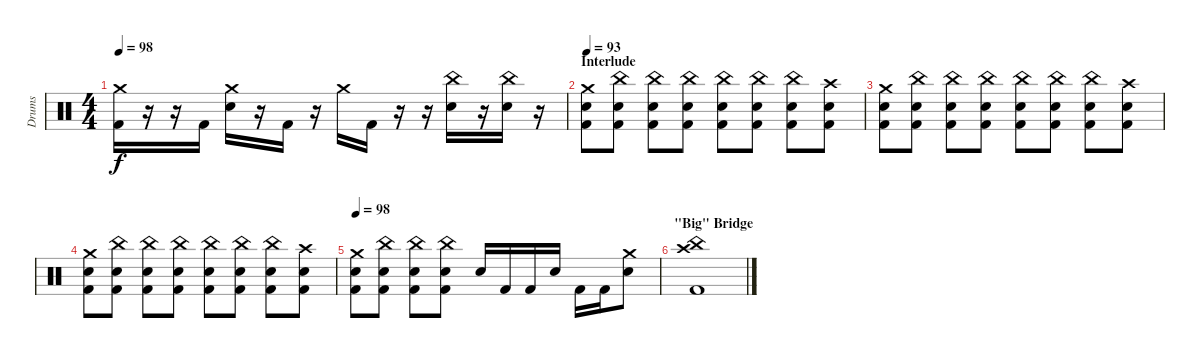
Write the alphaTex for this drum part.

\track ("Drums" "Drums") {instrument percussion}
\staff {score}
\articulation defaults
\ts (4 4)
\tempo 98
\clef neutral
\ks c
("Crash medium (hit)" "Kick (hit) 2").16{dy f} r.16 r.16 "Kick (hit) 2".16 ("Crash medium (hit)" "Electric Snare (hit)").16 r.16 "Kick (hit) 2".16 r.16 "Crash medium (hit)".16 "Kick (hit) 2".16 r.16 r.16 ("China (hit)" "Electric Snare (hit)").16 r.16 ("China (hit)" "Electric Snare (hit)").16 r.16 |
\section ("" "Interlude")
\tempo 93
("Crash medium (hit)" "Electric Snare (hit)" "Kick (hit) 2").8 ("China (hit)" "Electric Snare (hit)" "Kick (hit) 2").8 ("China (hit)" "Electric Snare (hit)" "Kick (hit) 2").8 ("China (hit)" "Electric Snare (hit)" "Kick (hit) 2").8 ("China (hit)" "Electric Snare (hit)" "Kick (hit) 2").8 ("China (hit)" "Electric Snare (hit)" "Kick (hit) 2").8 ("China (hit)" "Electric Snare (hit)" "Kick (hit) 2").8 ("Crash high (hit)" "Electric Snare (hit)" "Kick (hit) 2").8 |
("Crash medium (hit)" "Electric Snare (hit)" "Kick (hit) 2").8 ("China (hit)" "Electric Snare (hit)" "Kick (hit) 2").8 ("China (hit)" "Electric Snare (hit)" "Kick (hit) 2").8 ("China (hit)" "Electric Snare (hit)" "Kick (hit) 2").8 ("China (hit)" "Electric Snare (hit)" "Kick (hit) 2").8 ("China (hit)" "Electric Snare (hit)" "Kick (hit) 2").8 ("China (hit)" "Electric Snare (hit)" "Kick (hit) 2").8 ("Crash high (hit)" "Electric Snare (hit)" "Kick (hit) 2").8 |
("Crash medium (hit)" "Electric Snare (hit)" "Kick (hit) 2").8 ("China (hit)" "Electric Snare (hit)" "Kick (hit) 2").8 ("China (hit)" "Electric Snare (hit)" "Kick (hit) 2").8 ("China (hit)" "Electric Snare (hit)" "Kick (hit) 2").8 ("China (hit)" "Electric Snare (hit)" "Kick (hit) 2").8 ("China (hit)" "Electric Snare (hit)" "Kick (hit) 2").8 ("China (hit)" "Electric Snare (hit)" "Kick (hit) 2").8 ("Crash high (hit)" "Electric Snare (hit)" "Kick (hit) 2").8 |
\tempo 98
("Crash medium (hit)" "Electric Snare (hit)" "Kick (hit) 2").8 ("China (hit)" "Electric Snare (hit)" "Kick (hit) 2").8 ("China (hit)" "Electric Snare (hit)" "Kick (hit) 2").8 ("China (hit)" "Electric Snare (hit)" "Kick (hit) 2").8 "Electric Snare (hit)".16 "Kick (hit) 2".16 "Kick (hit) 2".16 "Electric Snare (hit)".16 "Kick (hit) 2".16 "Kick (hit) 2".16 ("Crash medium (hit)" "Electric Snare (hit)").8 |
\section ("" "\"Big\" Bridge")
("Crash high (hit)" "China (hit)" "Kick (hit) 2").1
